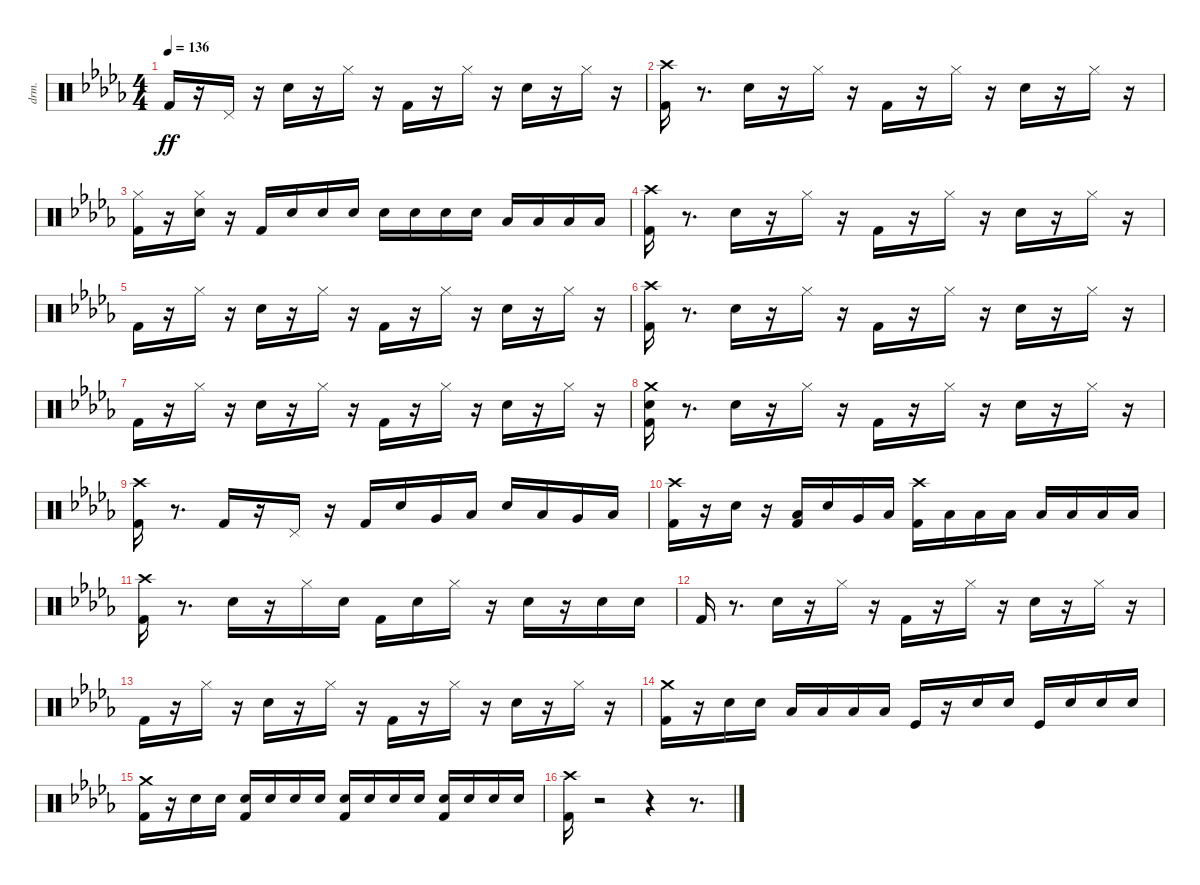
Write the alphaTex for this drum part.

\bracketExtendMode nobrackets
\track ("Drums" "drm.") {instrument percussion}
\staff {score}
\articulation defaults
\ts (4 4)
\tempo 136
\clef neutral
\ks db "Kick (hit) 2"{acc forcenatural}.16{dy ff beam Up}
r.16{beam Up} "Pedal Hi-Hat (hit)"{acc #}.16{beam Up} r.16{beam Down} "Electric Snare (hit)"{acc forcenatural}.16{beam Down} r.16{beam Down} "Hi-Hat (closed)"{acc #}.16{beam Down} r.16{beam Down} "Kick (hit) 2"{acc forcenatural}.16{beam Down} r.16{beam Down} "Hi-Hat (closed)"{acc #}.16{beam Down} r.16{beam Down} "Electric Snare (hit)"{acc forcenatural}.16{beam Down} r.16{beam Down} "Hi-Hat (closed)"{acc #}.16{beam Down} r.16{beam Down} |
("Kick (hit) 2"{acc forcenatural} "Crash high (hit)"{acc #}).16{beam Down} r.8{d beam Down} "Electric Snare (hit)"{acc forcenatural}.16{beam Down} r.16{beam Down} "Hi-Hat (closed)"{acc #}.16{beam Down} r.16{beam Down} "Kick (hit) 2"{acc forcenatural}.16{beam Down} r.16{beam Down} "Hi-Hat (closed)"{acc #}.16{beam Down} r.16{beam Down} "Electric Snare (hit)"{acc forcenatural}.16{beam Down} r.16{beam Down} "Hi-Hat (closed)"{acc #}.16{beam Down} r.16{beam Down} |
("Kick (hit) 2"{acc forcenatural} "Hi-Hat (closed)"{acc #}).16{beam Down} r.16{beam Down} ("Electric Snare (hit)"{acc forcenatural} "Hi-Hat (closed)"{acc #}).16{beam Down} r.16{beam Down} "Kick (hit) 2"{acc forcenatural}.16{beam Up} "Electric Snare (hit)"{acc forcenatural}.16{beam Up} "Electric Snare (hit)"{acc forcenatural}.16{beam Up} "Electric Snare (hit)"{acc forcenatural}.16{beam Up} "Electric Snare (hit)"{acc forcenatural}.16{beam Down} "Electric Snare (hit)"{acc forcenatural}.16{beam Down} "Electric Snare (hit)"{acc forcenatural}.16{beam Down} "Electric Snare (hit)"{acc forcenatural}.16{beam Down} "Low Floor Tom (hit)"{acc forcenatural}.16{beam Up} "Low Floor Tom (hit)"{acc forcenatural}.16{beam Up} "Low Floor Tom (hit)"{acc forcenatural}.16{beam Up} "Low Floor Tom (hit)"{acc forcenatural}.16{beam Up} |
("Kick (hit) 2"{acc forcenatural} "Crash high (hit)"{acc #}).16{beam Down} r.8{d beam Down} "Electric Snare (hit)"{acc forcenatural}.16{beam Down} r.16{beam Down} "Hi-Hat (closed)"{acc #}.16{beam Down} r.16{beam Down} "Kick (hit) 2"{acc forcenatural}.16{beam Down} r.16{beam Down} "Hi-Hat (closed)"{acc #}.16{beam Down} r.16{beam Down} "Electric Snare (hit)"{acc forcenatural}.16{beam Down} r.16{beam Down} "Hi-Hat (closed)"{acc #}.16{beam Down} r.16{beam Down} |
"Kick (hit) 2"{acc forcenatural}.16{beam Down} r.16{beam Down} "Hi-Hat (closed)"{acc #}.16{beam Down} r.16{beam Down} "Electric Snare (hit)"{acc forcenatural}.16{beam Down} r.16{beam Down} "Hi-Hat (closed)"{acc #}.16{beam Down} r.16{beam Down} "Kick (hit) 2"{acc forcenatural}.16{beam Down} r.16{beam Down} "Hi-Hat (closed)"{acc #}.16{beam Down} r.16{beam Down} "Electric Snare (hit)"{acc forcenatural}.16{beam Down} r.16{beam Down} "Hi-Hat (closed)"{acc #}.16{beam Down} r.16{beam Down} |
("Kick (hit) 2"{acc forcenatural} "Crash high (hit)"{acc #}).16{beam Down} r.8{d beam Down} "Electric Snare (hit)"{acc forcenatural}.16{beam Down} r.16{beam Down} "Hi-Hat (closed)"{acc #}.16{beam Down} r.16{beam Down} "Kick (hit) 2"{acc forcenatural}.16{beam Down} r.16{beam Down} "Hi-Hat (closed)"{acc #}.16{beam Down} r.16{beam Down} "Electric Snare (hit)"{acc forcenatural}.16{beam Down} r.16{beam Down} "Hi-Hat (closed)"{acc #}.16{beam Down} r.16{beam Down} |
"Kick (hit) 2"{acc forcenatural}.16{beam Down} r.16{beam Down} "Hi-Hat (closed)"{acc #}.16{beam Down} r.16{beam Down} "Electric Snare (hit)"{acc forcenatural}.16{beam Down} r.16{beam Down} "Hi-Hat (closed)"{acc #}.16{beam Down} r.16{beam Down} "Kick (hit) 2"{acc forcenatural}.16{beam Down} r.16{beam Down} "Hi-Hat (closed)"{acc #}.16{beam Down} r.16{beam Down} "Electric Snare (hit)"{acc forcenatural}.16{beam Down} r.16{beam Down} "Hi-Hat (closed)"{acc #}.16{beam Down} r.16{beam Down} |
("Kick (hit) 2"{acc forcenatural} "Electric Snare (hit)"{acc forcenatural} "Crash medium (hit)"{acc forcenatural}).16{beam Down} r.8{d beam Down} "Electric Snare (hit)"{acc forcenatural}.16{beam Down} r.16{beam Down} "Hi-Hat (closed)"{acc #}.16{beam Down} r.16{beam Down} "Kick (hit) 2"{acc forcenatural}.16{beam Down} r.16{beam Down} "Hi-Hat (closed)"{acc #}.16{beam Down} r.16{beam Down} "Electric Snare (hit)"{acc forcenatural}.16{beam Down} r.16{beam Down} "Hi-Hat (closed)"{acc #}.16{beam Down} r.16{beam Down} |
("Kick (hit) 2"{acc forcenatural} "Crash high (hit)"{acc #}).16{beam Down} r.8{d beam Down} "Kick (hit) 2"{acc forcenatural}.16{beam Up} r.16{beam Up} "Pedal Hi-Hat (hit)"{acc #}.16{beam Up} r.16{beam Down} "Kick (hit) 2"{acc forcenatural}.16{beam Up} "Electric Snare (hit)"{acc forcenatural}.16{beam Up} "Very Low Tom (hit)"{acc forcenatural}.16{beam Up} "Low Floor Tom (hit)"{acc forcenatural}.16{beam Up} "Electric Snare (hit)"{acc forcenatural}.16{beam Up} "Low Tom (hit)"{acc forcenatural}.16{beam Up} "Very Low Tom (hit)"{acc forcenatural}.16{beam Up} "Low Floor Tom (hit)"{acc forcenatural}.16{beam Up} |
("Kick (hit) 2"{acc forcenatural} "Crash high (hit)"{acc #}).16{beam Down} r.16{beam Down} "Electric Snare (hit)"{acc forcenatural}.16{beam Down} r.16{beam Down} ("Kick (hit) 2"{acc forcenatural} "Low Floor Tom (hit)"{acc forcenatural}).16{beam Up} "Electric Snare (hit)"{acc forcenatural}.16{beam Up} "Very Low Tom (hit)"{acc forcenatural}.16{beam Up} "Low Floor Tom (hit)"{acc forcenatural}.16{beam Up} ("Kick (hit) 2"{acc forcenatural} "Crash high (hit)"{acc #}).16{beam Down} "Low Floor Tom (hit)"{acc forcenatural}.16{beam Down} "Low Floor Tom (hit)"{acc forcenatural}.16{beam Down} "Low Floor Tom (hit)"{acc forcenatural}.16{beam Down} "Low Floor Tom (hit)"{acc forcenatural}.16{beam Up} "Low Floor Tom (hit)"{acc forcenatural}.16{beam Up} "Low Floor Tom (hit)"{acc forcenatural}.16{beam Up} "Low Floor Tom (hit)"{acc forcenatural}.16{beam Up} |
("Kick (hit) 2"{acc forcenatural} "Crash high (hit)"{acc #}).16{beam Down} r.8{d beam Down} "Electric Snare (hit)"{acc forcenatural}.16{beam Down} r.16{beam Down} "Hi-Hat (closed)"{acc #}.16{beam Down} "Electric Snare (hit)"{acc forcenatural}.16{beam Down} "Kick (hit) 2"{acc forcenatural}.16{beam Down} "Electric Snare (hit)"{acc forcenatural}.16{beam Down} "Hi-Hat (closed)"{acc #}.16{beam Down} r.16{beam Down} "Electric Snare (hit)"{acc forcenatural}.16{beam Down} r.16{beam Down} "Electric Snare (hit)"{acc forcenatural}.16{beam Down} "Electric Snare (hit)"{acc forcenatural}.16{beam Down} |
"Kick (hit) 2"{acc forcenatural}.16{beam Up} r.8{d beam Down} "Electric Snare (hit)"{acc forcenatural}.16{beam Down} r.16{beam Down} "Hi-Hat (closed)"{acc #}.16{beam Down} r.16{beam Down} "Kick (hit) 2"{acc forcenatural}.16{beam Down} r.16{beam Down} "Hi-Hat (closed)"{acc #}.16{beam Down} r.16{beam Down} "Electric Snare (hit)"{acc forcenatural}.16{beam Down} r.16{beam Down} "Hi-Hat (closed)"{acc #}.16{beam Down} r.16{beam Down} |
"Kick (hit) 2"{acc forcenatural}.16{beam Down} r.16{beam Down} "Hi-Hat (closed)"{acc #}.16{beam Down} r.16{beam Down} "Electric Snare (hit)"{acc forcenatural}.16{beam Down} r.16{beam Down} "Hi-Hat (closed)"{acc #}.16{beam Down} r.16{beam Down} "Kick (hit) 2"{acc forcenatural}.16{beam Down} r.16{beam Down} "Hi-Hat (closed)"{acc #}.16{beam Down} r.16{beam Down} "Electric Snare (hit)"{acc forcenatural}.16{beam Down} r.16{beam Down} "Hi-Hat (closed)"{acc #}.16{beam Down} r.16{beam Down} |
("Kick (hit) 2"{acc forcenatural} "Crash medium (hit)"{acc forcenatural}).16{beam Down} r.16{beam Down} "Electric Snare (hit)"{acc forcenatural}.16{beam Down} "Electric Snare (hit)"{acc forcenatural}.16{beam Down} "Low Floor Tom (hit)"{acc forcenatural}.16{beam Up} "Low Floor Tom (hit)"{acc forcenatural}.16{beam Up} "Low Floor Tom (hit)"{acc forcenatural}.16{beam Up} "Low Floor Tom (hit)"{acc forcenatural}.16{beam Up} "Kick (hit)"{acc forcenatural}.16{beam Up} r.16{beam Up} "Electric Snare (hit)"{acc forcenatural}.16{beam Up} "Electric Snare (hit)"{acc forcenatural}.16{beam Up} "Kick (hit)"{acc forcenatural}.16{beam Up} "Electric Snare (hit)"{acc forcenatural}.16{beam Up} "Electric Snare (hit)"{acc forcenatural}.16{beam Up} "Electric Snare (hit)"{acc forcenatural}.16{beam Up} |
("Kick (hit) 2"{acc forcenatural} "Crash medium (hit)"{acc forcenatural}).16{beam Down} r.16{beam Down} "Electric Snare (hit)"{acc forcenatural}.16{beam Down} "Electric Snare (hit)"{acc forcenatural}.16{beam Down} ("Kick (hit) 2"{acc forcenatural} "Electric Snare (hit)"{acc forcenatural}).16{beam Up} "Electric Snare (hit)"{acc forcenatural}.16{beam Up} "Electric Snare (hit)"{acc forcenatural}.16{beam Up} "Electric Snare (hit)"{acc forcenatural}.16{beam Up} ("Kick (hit) 2"{acc forcenatural} "Electric Snare (hit)"{acc forcenatural}).16{beam Up} "Electric Snare (hit)"{acc forcenatural}.16{beam Up} "Electric Snare (hit)"{acc forcenatural}.16{beam Up} "Electric Snare (hit)"{acc forcenatural}.16{beam Up} ("Kick (hit) 2"{acc forcenatural} "Electric Snare (hit)"{acc forcenatural}).16{beam Up} "Electric Snare (hit)"{acc forcenatural}.16{beam Up} "Electric Snare (hit)"{acc forcenatural}.16{beam Up} "Electric Snare (hit)"{acc forcenatural}.16{beam Up} |
("Kick (hit) 2"{acc forcenatural} "Crash high (hit)"{acc #}).16{beam Down} r.2{beam Down} r.4{beam Down} r.8{d beam Down}
